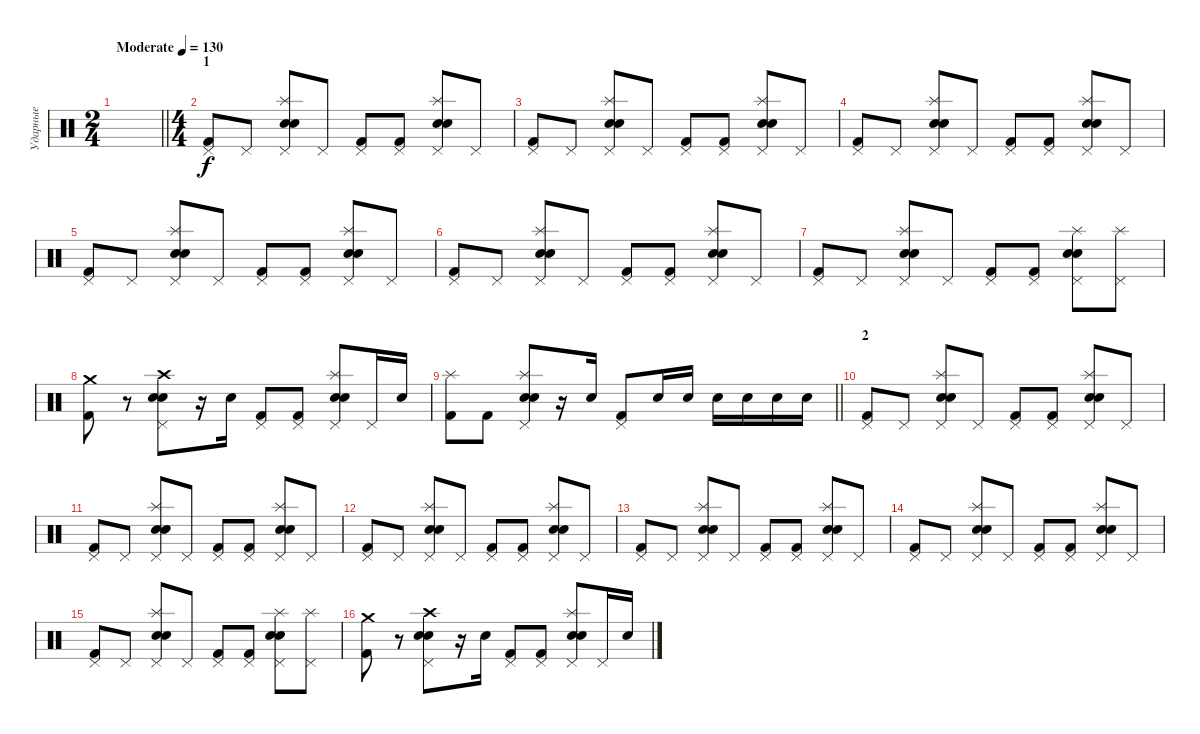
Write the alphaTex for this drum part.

\track ("Ударные" "Ударные") {instrument percussion}
\staff {score}
\articulation defaults
\ts (2 4)
\tempo (130 "Moderate")
\clef neutral
\barLineRight lightlight
\ks c
|
\ts (4 4)
\section ("" "1")
("Pedal Hi-Hat (hit)" "Kick (hit) 2").8 "Pedal Hi-Hat (hit)".8 ("Splash (hit)" "Pedal Hi-Hat (hit)" "Electric Snare (hit)" "Snare (hit) 2").8 "Pedal Hi-Hat (hit)".8 ("Pedal Hi-Hat (hit)" "Kick (hit) 2").8 ("Pedal Hi-Hat (hit)" "Kick (hit) 2").8 ("Splash (hit)" "Pedal Hi-Hat (hit)" "Electric Snare (hit)" "Snare (hit) 2").8 "Pedal Hi-Hat (hit)".8 |
("Pedal Hi-Hat (hit)" "Kick (hit) 2").8 "Pedal Hi-Hat (hit)".8 ("Splash (hit)" "Pedal Hi-Hat (hit)" "Electric Snare (hit)" "Snare (hit) 2").8 "Pedal Hi-Hat (hit)".8 ("Pedal Hi-Hat (hit)" "Kick (hit) 2").8 ("Pedal Hi-Hat (hit)" "Kick (hit) 2").8 ("Splash (hit)" "Pedal Hi-Hat (hit)" "Electric Snare (hit)" "Snare (hit) 2").8 "Pedal Hi-Hat (hit)".8 |
("Pedal Hi-Hat (hit)" "Kick (hit) 2").8 "Pedal Hi-Hat (hit)".8 ("Splash (hit)" "Pedal Hi-Hat (hit)" "Electric Snare (hit)" "Snare (hit) 2").8 "Pedal Hi-Hat (hit)".8 ("Pedal Hi-Hat (hit)" "Kick (hit) 2").8 ("Pedal Hi-Hat (hit)" "Kick (hit) 2").8 ("Splash (hit)" "Pedal Hi-Hat (hit)" "Electric Snare (hit)" "Snare (hit) 2").8 "Pedal Hi-Hat (hit)".8 |
("Pedal Hi-Hat (hit)" "Kick (hit) 2").8 "Pedal Hi-Hat (hit)".8 ("Splash (hit)" "Pedal Hi-Hat (hit)" "Electric Snare (hit)" "Snare (hit) 2").8 "Pedal Hi-Hat (hit)".8 ("Pedal Hi-Hat (hit)" "Kick (hit) 2").8 ("Pedal Hi-Hat (hit)" "Kick (hit) 2").8 ("Splash (hit)" "Pedal Hi-Hat (hit)" "Electric Snare (hit)" "Snare (hit) 2").8 "Pedal Hi-Hat (hit)".8 |
("Pedal Hi-Hat (hit)" "Kick (hit) 2").8 "Pedal Hi-Hat (hit)".8 ("Splash (hit)" "Pedal Hi-Hat (hit)" "Electric Snare (hit)" "Snare (hit) 2").8 "Pedal Hi-Hat (hit)".8 ("Pedal Hi-Hat (hit)" "Kick (hit) 2").8 ("Pedal Hi-Hat (hit)" "Kick (hit) 2").8 ("Splash (hit)" "Pedal Hi-Hat (hit)" "Electric Snare (hit)" "Snare (hit) 2").8 "Pedal Hi-Hat (hit)".8 |
("Pedal Hi-Hat (hit)" "Kick (hit) 2").8 "Pedal Hi-Hat (hit)".8 ("Splash (hit)" "Pedal Hi-Hat (hit)" "Electric Snare (hit)" "Snare (hit) 2").8 "Pedal Hi-Hat (hit)".8 ("Pedal Hi-Hat (hit)" "Kick (hit) 2").8 ("Pedal Hi-Hat (hit)" "Kick (hit) 2").8 ("Splash (hit)" "Pedal Hi-Hat (hit)" "Electric Snare (hit)" "Snare (hit) 2").8 ("Splash (hit)" "Pedal Hi-Hat (hit)").8 |
("Crash medium (hit)" "Kick (hit) 2").8 r.8 ("Crash high (hit)" "Pedal Hi-Hat (hit)" "Electric Snare (hit)" "Snare (hit) 2").8 r.16 "Electric Snare (hit)".16 ("Pedal Hi-Hat (hit)" "Kick (hit) 2").8 ("Pedal Hi-Hat (hit)" "Kick (hit) 2").8 ("Splash (hit)" "Pedal Hi-Hat (hit)" "Electric Snare (hit)" "Snare (hit) 2").8 "Pedal Hi-Hat (hit)".16 "Electric Snare (hit)".16 |
\barLineRight lightlight
("Splash (hit)" "Kick (hit) 2").8 "Kick (hit) 2".8 ("Splash (hit)" "Pedal Hi-Hat (hit)" "Electric Snare (hit)" "Snare (hit) 2").8 r.16 "Electric Snare (hit)".16 ("Pedal Hi-Hat (hit)" "Kick (hit) 2").8 "Electric Snare (hit)".16 "Electric Snare (hit)".16 "Electric Snare (hit)".16 "Electric Snare (hit)".16 "Electric Snare (hit)".16 "Electric Snare (hit)".16 |
\section ("" "2")
("Pedal Hi-Hat (hit)" "Kick (hit) 2").8 "Pedal Hi-Hat (hit)".8 ("Splash (hit)" "Pedal Hi-Hat (hit)" "Electric Snare (hit)" "Snare (hit) 2").8 "Pedal Hi-Hat (hit)".8 ("Pedal Hi-Hat (hit)" "Kick (hit) 2").8 ("Pedal Hi-Hat (hit)" "Kick (hit) 2").8 ("Splash (hit)" "Pedal Hi-Hat (hit)" "Electric Snare (hit)" "Snare (hit) 2").8 "Pedal Hi-Hat (hit)".8 |
("Pedal Hi-Hat (hit)" "Kick (hit) 2").8 "Pedal Hi-Hat (hit)".8 ("Splash (hit)" "Pedal Hi-Hat (hit)" "Electric Snare (hit)" "Snare (hit) 2").8 "Pedal Hi-Hat (hit)".8 ("Pedal Hi-Hat (hit)" "Kick (hit) 2").8 ("Pedal Hi-Hat (hit)" "Kick (hit) 2").8 ("Splash (hit)" "Pedal Hi-Hat (hit)" "Electric Snare (hit)" "Snare (hit) 2").8 "Pedal Hi-Hat (hit)".8 |
("Pedal Hi-Hat (hit)" "Kick (hit) 2").8 "Pedal Hi-Hat (hit)".8 ("Splash (hit)" "Pedal Hi-Hat (hit)" "Electric Snare (hit)" "Snare (hit) 2").8 "Pedal Hi-Hat (hit)".8 ("Pedal Hi-Hat (hit)" "Kick (hit) 2").8 ("Pedal Hi-Hat (hit)" "Kick (hit) 2").8 ("Splash (hit)" "Pedal Hi-Hat (hit)" "Electric Snare (hit)" "Snare (hit) 2").8 "Pedal Hi-Hat (hit)".8 |
("Pedal Hi-Hat (hit)" "Kick (hit) 2").8 "Pedal Hi-Hat (hit)".8 ("Splash (hit)" "Pedal Hi-Hat (hit)" "Electric Snare (hit)" "Snare (hit) 2").8 "Pedal Hi-Hat (hit)".8 ("Pedal Hi-Hat (hit)" "Kick (hit) 2").8 ("Pedal Hi-Hat (hit)" "Kick (hit) 2").8 ("Splash (hit)" "Pedal Hi-Hat (hit)" "Electric Snare (hit)" "Snare (hit) 2").8 "Pedal Hi-Hat (hit)".8 |
("Pedal Hi-Hat (hit)" "Kick (hit) 2").8 "Pedal Hi-Hat (hit)".8 ("Splash (hit)" "Pedal Hi-Hat (hit)" "Electric Snare (hit)" "Snare (hit) 2").8 "Pedal Hi-Hat (hit)".8 ("Pedal Hi-Hat (hit)" "Kick (hit) 2").8 ("Pedal Hi-Hat (hit)" "Kick (hit) 2").8 ("Splash (hit)" "Pedal Hi-Hat (hit)" "Electric Snare (hit)" "Snare (hit) 2").8 "Pedal Hi-Hat (hit)".8 |
("Pedal Hi-Hat (hit)" "Kick (hit) 2").8 "Pedal Hi-Hat (hit)".8 ("Splash (hit)" "Pedal Hi-Hat (hit)" "Electric Snare (hit)" "Snare (hit) 2").8 "Pedal Hi-Hat (hit)".8 ("Pedal Hi-Hat (hit)" "Kick (hit) 2").8 ("Pedal Hi-Hat (hit)" "Kick (hit) 2").8 ("Splash (hit)" "Pedal Hi-Hat (hit)" "Electric Snare (hit)" "Snare (hit) 2").8 ("Splash (hit)" "Pedal Hi-Hat (hit)").8 |
("Crash medium (hit)" "Kick (hit) 2").8 r.8 ("Crash high (hit)" "Pedal Hi-Hat (hit)" "Electric Snare (hit)" "Snare (hit) 2").8 r.16 "Electric Snare (hit)".16 ("Pedal Hi-Hat (hit)" "Kick (hit) 2").8 ("Pedal Hi-Hat (hit)" "Kick (hit) 2").8 ("Splash (hit)" "Pedal Hi-Hat (hit)" "Electric Snare (hit)" "Snare (hit) 2").8 "Pedal Hi-Hat (hit)".16 "Electric Snare (hit)".16
